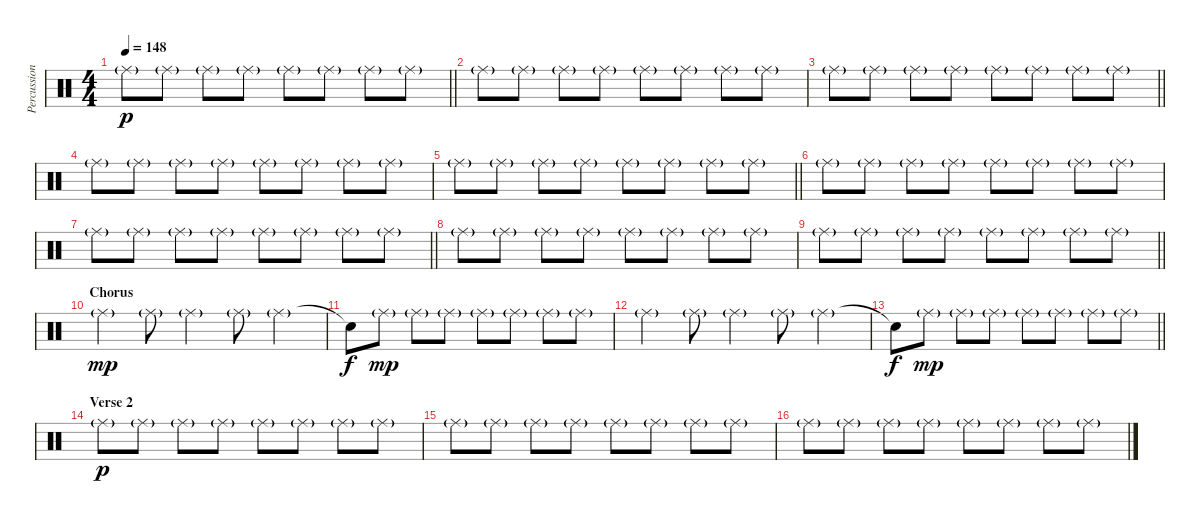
\track ("Percussions" "Percussion") {instrument percussion}
\staff {score}
\articulation defaults
\ts (4 4)
\tempo 148
\clef neutral
\barLineRight lightlight
\ks c "Ride (middle)"{g}.8{dy p} "Ride (middle)"{g}.8 "Ride (middle)"{g}.8 "Ride (middle)"{g}.8 "Ride (middle)"{g}.8 "Ride (middle)"{g}.8 "Ride (middle)"{g}.8 "Ride (middle)"{g}.8
|
"Ride (middle)"{g}.8 "Ride (middle)"{g}.8 "Ride (middle)"{g}.8 "Ride (middle)"{g}.8 "Ride (middle)"{g}.8 "Ride (middle)"{g}.8 "Ride (middle)"{g}.8 "Ride (middle)"{g}.8 |
\barLineRight lightlight "Ride (middle)"{g}.8 "Ride (middle)"{g}.8 "Ride (middle)"{g}.8 "Ride (middle)"{g}.8 "Ride (middle)"{g}.8 "Ride (middle)"{g}.8 "Ride (middle)"{g}.8 "Ride (middle)"{g}.8
|
"Ride (middle)"{g}.8 "Ride (middle)"{g}.8 "Ride (middle)"{g}.8 "Ride (middle)"{g}.8 "Ride (middle)"{g}.8 "Ride (middle)"{g}.8 "Ride (middle)"{g}.8 "Ride (middle)"{g}.8 |
\barLineRight lightlight "Ride (middle)"{g}.8 "Ride (middle)"{g}.8 "Ride (middle)"{g}.8 "Ride (middle)"{g}.8 "Ride (middle)"{g}.8 "Ride (middle)"{g}.8 "Ride (middle)"{g}.8 "Ride (middle)"{g}.8
|
"Ride (middle)"{g}.8 "Ride (middle)"{g}.8 "Ride (middle)"{g}.8 "Ride (middle)"{g}.8 "Ride (middle)"{g}.8 "Ride (middle)"{g}.8 "Ride (middle)"{g}.8 "Ride (middle)"{g}.8 |
\barLineRight lightlight "Ride (middle)"{g}.8 "Ride (middle)"{g}.8 "Ride (middle)"{g}.8 "Ride (middle)"{g}.8 "Ride (middle)"{g}.8 "Ride (middle)"{g}.8 "Ride (middle)"{g}.8 "Ride (middle)"{g}.8
|
"Ride (middle)"{g}.8 "Ride (middle)"{g}.8 "Ride (middle)"{g}.8 "Ride (middle)"{g}.8 "Ride (middle)"{g}.8 "Ride (middle)"{g}.8 "Ride (middle)"{g}.8 "Ride (middle)"{g}.8 |
\barLineRight lightlight "Ride (middle)"{g}.8 "Ride (middle)"{g}.8 "Ride (middle)"{g}.8 "Ride (middle)"{g}.8 "Ride (middle)"{g}.8 "Ride (middle)"{g}.8 "Ride (middle)"{g}.8 "Ride (middle)"{g}.8
|
\section ("" "Chorus")
"Ride (middle)"{g}.4{dy mp} "Ride (middle)"{g}.8 "Ride (middle)"{g}.4 "Ride (middle)"{g}.8 "Ride (middle)"{g}.4 |
"Snare (hit)"{t}.8{dy f} "Ride (middle)"{g}.8{dy mp} "Ride (middle)"{g}.8 "Ride (middle)"{g}.8 "Ride (middle)"{g}.8 "Ride (middle)"{g}.8 "Ride (middle)"{g}.8 "Ride (middle)"{g}.8 |
"Ride (middle)"{g}.4 "Ride (middle)"{g}.8 "Ride (middle)"{g}.4 "Ride (middle)"{g}.8 "Ride (middle)"{g}.4 |
\barLineRight lightlight "Snare (hit)"{t}.8{dy f} "Ride (middle)"{g}.8{dy mp} "Ride (middle)"{g}.8 "Ride (middle)"{g}.8 "Ride (middle)"{g}.8 "Ride (middle)"{g}.8 "Ride (middle)"{g}.8 "Ride (middle)"{g}.8
|
\section ("" "Verse 2")
"Ride (middle)"{g}.8{dy p} "Ride (middle)"{g}.8 "Ride (middle)"{g}.8 "Ride (middle)"{g}.8 "Ride (middle)"{g}.8 "Ride (middle)"{g}.8 "Ride (middle)"{g}.8 "Ride (middle)"{g}.8 |
"Ride (middle)"{g}.8 "Ride (middle)"{g}.8 "Ride (middle)"{g}.8 "Ride (middle)"{g}.8 "Ride (middle)"{g}.8 "Ride (middle)"{g}.8 "Ride (middle)"{g}.8 "Ride (middle)"{g}.8 |
"Ride (middle)"{g}.8 "Ride (middle)"{g}.8 "Ride (middle)"{g}.8 "Ride (middle)"{g}.8 "Ride (middle)"{g}.8 "Ride (middle)"{g}.8 "Ride (middle)"{g}.8 "Ride (middle)"{g}.8
